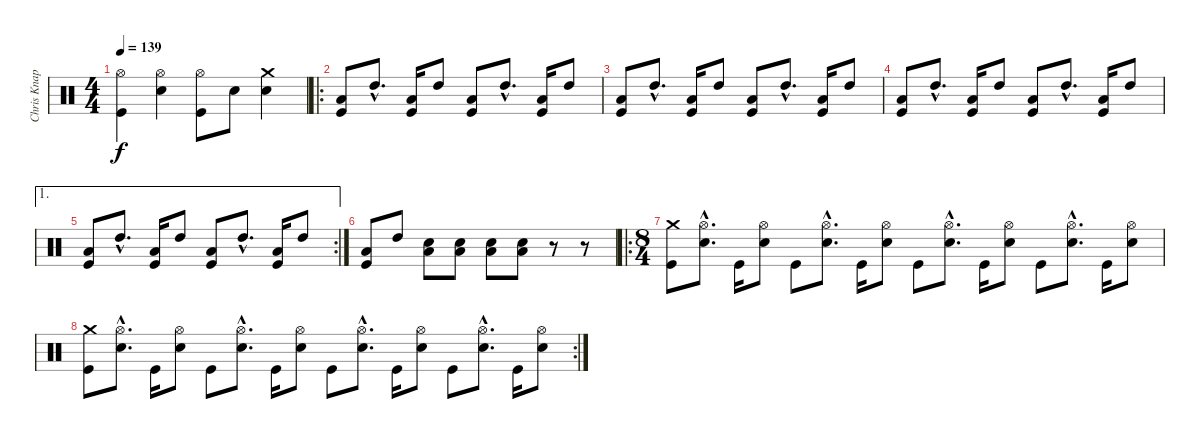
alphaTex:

\track ("Chris Knapp" "Chris Knap") {instrument percussion}
\staff {score}
\articulation defaults
\ts (4 4)
\tempo 139
\clef neutral
\ks c
("Hi-Hat (open)" "Kick (hit)").4{dy f} ("Hi-Hat (open)" "Electric Snare (hit)").4 ("Hi-Hat (open)" "Kick (hit)").8 "Electric Snare (hit)".8 ("Crash medium (hit)" "Electric Snare (hit)").4 |
\ro
("Low Floor Tom (hit)" "Kick (hit)").8 "High Tom (hit)"{hac}.8{d} ("Low Floor Tom (hit)" "Kick (hit)").16 "High Tom (hit)".8 ("Low Floor Tom (hit)" "Kick (hit)").8 "High Tom (hit)"{hac}.8{d} ("Low Floor Tom (hit)" "Kick (hit)").16 "High Tom (hit)".8 |
("Low Floor Tom (hit)" "Kick (hit)").8 "High Tom (hit)"{hac}.8{d} ("Low Floor Tom (hit)" "Kick (hit)").16 "High Tom (hit)".8 ("Low Floor Tom (hit)" "Kick (hit)").8 "High Tom (hit)"{hac}.8{d} ("Low Floor Tom (hit)" "Kick (hit)").16 "High Tom (hit)".8 |
("Low Floor Tom (hit)" "Kick (hit)").8 "High Tom (hit)"{hac}.8{d} ("Low Floor Tom (hit)" "Kick (hit)").16 "High Tom (hit)".8 ("Low Floor Tom (hit)" "Kick (hit)").8 "High Tom (hit)"{hac}.8{d} ("Low Floor Tom (hit)" "Kick (hit)").16 "High Tom (hit)".8 |
\ae 1
\rc 2
("Low Floor Tom (hit)" "Kick (hit)").8 "High Tom (hit)"{hac}.8{d} ("Low Floor Tom (hit)" "Kick (hit)").16 "High Tom (hit)".8 ("Low Floor Tom (hit)" "Kick (hit)").8 "High Tom (hit)"{hac}.8{d} ("Low Floor Tom (hit)" "Kick (hit)").16 "High Tom (hit)".8 |
("Low Floor Tom (hit)" "Kick (hit)").8 "High Tom (hit)".8 ("Electric Snare (hit)" "Low Floor Tom (hit)").8 ("Electric Snare (hit)" "Low Floor Tom (hit)").8 ("Electric Snare (hit)" "Low Floor Tom (hit)").8 ("Electric Snare (hit)" "Low Floor Tom (hit)").8 r.8 r.8 |
\ro
\ts (8 4)
("Crash medium (hit)" "Kick (hit)").8 ("Hi-Hat (open)"{hac} "Electric Snare (hit)"{hac}).8{d} "Kick (hit)".16 ("Hi-Hat (open)" "Electric Snare (hit)").8 "Kick (hit)".8 ("Hi-Hat (open)"{hac} "Electric Snare (hit)"{hac}).8{d} "Kick (hit)".16 ("Hi-Hat (open)" "Electric Snare (hit)").8 "Kick (hit)".8 ("Hi-Hat (open)"{hac} "Electric Snare (hit)"{hac}).8{d} "Kick (hit)".16 ("Hi-Hat (open)" "Electric Snare (hit)").8 "Kick (hit)".8 ("Hi-Hat (open)"{hac} "Electric Snare (hit)"{hac}).8{d} "Kick (hit)".16 ("Hi-Hat (open)" "Electric Snare (hit)").8 |
\rc 2
("Crash medium (hit)" "Kick (hit)").8 ("Hi-Hat (open)"{hac} "Electric Snare (hit)"{hac}).8{d} "Kick (hit)".16 ("Hi-Hat (open)" "Electric Snare (hit)").8 "Kick (hit)".8 ("Hi-Hat (open)"{hac} "Electric Snare (hit)"{hac}).8{d} "Kick (hit)".16 ("Hi-Hat (open)" "Electric Snare (hit)").8 "Kick (hit)".8 ("Hi-Hat (open)"{hac} "Electric Snare (hit)"{hac}).8{d} "Kick (hit)".16 ("Hi-Hat (open)" "Electric Snare (hit)").8 "Kick (hit)".8 ("Hi-Hat (open)"{hac} "Electric Snare (hit)"{hac}).8{d} "Kick (hit)".16 ("Hi-Hat (open)" "Electric Snare (hit)").8
